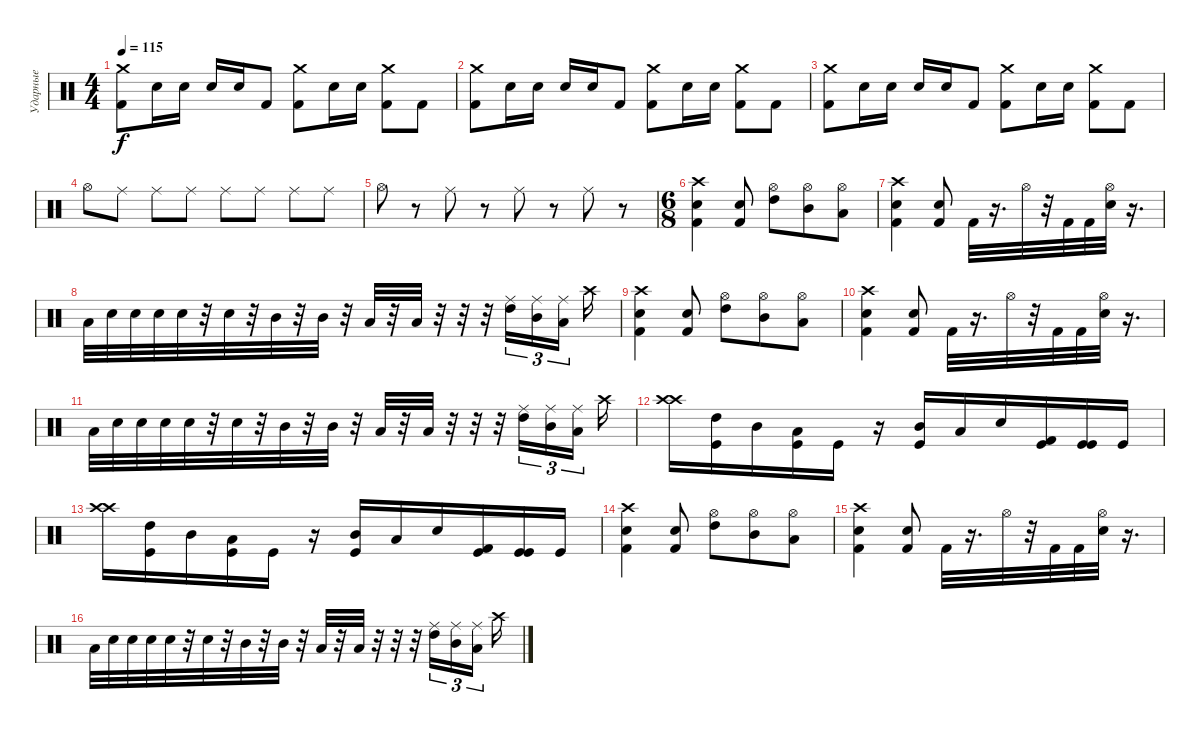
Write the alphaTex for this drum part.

\track ("Ударные" "Ударные") {instrument percussion}
\staff {score}
\articulation defaults
\ts (4 4)
\tempo 115
\clef neutral
\ks c
("Kick (hit) 2" "Crash medium (hit)").8{dy f} "Electric Snare (hit)".16 "Electric Snare (hit)".16 "Electric Snare (hit)".16 "Electric Snare (hit)".16 "Kick (hit) 2".8 ("Kick (hit) 2" "Crash medium (hit)").8 "Electric Snare (hit)".16 "Electric Snare (hit)".16 ("Kick (hit) 2" "Crash medium (hit)").8 "Kick (hit) 2".8 |
("Kick (hit) 2" "Crash medium (hit)").8 "Electric Snare (hit)".16 "Electric Snare (hit)".16 "Electric Snare (hit)".16 "Electric Snare (hit)".16 "Kick (hit) 2".8 ("Kick (hit) 2" "Crash medium (hit)").8 "Electric Snare (hit)".16 "Electric Snare (hit)".16 ("Kick (hit) 2" "Crash medium (hit)").8 "Kick (hit) 2".8 |
("Kick (hit) 2" "Crash medium (hit)").8 "Electric Snare (hit)".16 "Electric Snare (hit)".16 "Electric Snare (hit)".16 "Electric Snare (hit)".16 "Kick (hit) 2".8 ("Kick (hit) 2" "Crash medium (hit)").8 "Electric Snare (hit)".16 "Electric Snare (hit)".16 ("Kick (hit) 2" "Crash medium (hit)").8 "Kick (hit) 2".8 |
"Hi-Hat (open)".8 "Ride (middle)".8 "Ride (middle)".8 "Ride (middle)".8 "Ride (middle)".8 "Ride (middle)".8 "Ride (middle)".8 "Ride (middle)".8 |
"Hi-Hat (open)".8 r.8 "Ride (middle)".8 r.8 "Ride (middle)".8 r.8 "Ride (middle)".8 r.8 |
\ts (6 8)
("Crash high (hit)" "Kick (hit) 2" "Electric Snare (hit)").4 ("Kick (hit) 2" "Electric Snare (hit)").8 ("High Tom (hit)" "Hi-Hat (open)").8 ("Mid Tom (hit)" "Hi-Hat (open)").8 ("Low Tom (hit)" "Hi-Hat (open)").8 |
("Crash high (hit)" "Kick (hit) 2" "Electric Snare (hit)").4 ("Kick (hit) 2" "Electric Snare (hit)").8 "Kick (hit) 2".32 r.16{d} "Hi-Hat (open)".32 r.32 "Kick (hit) 2".32 "Kick (hit) 2".32 ("Snare (hit) 2" "Hi-Hat (open)").32 r.16{d} |
"Low Tom (hit)".32 "Snare (hit) 2".32 "Snare (hit) 2".32 "Snare (hit) 2".32 "Snare (hit) 2".32 r.32 "Snare (hit) 2".32 r.32 "Mid Tom (hit)".32 r.32 "Mid Tom (hit)".32 r.32 "Low Tom (hit)".32 r.32 "Low Tom (hit)".32 r.32 r.32 r.32 ("High Tom (hit)" "Ride (middle)").16{tu (3 2)} ("Mid Tom (hit)" "Ride (middle)").16{tu (3 2)} ("Low Tom (hit)" "Ride (middle)").16{tu (3 2)} "Crash high (hit)".16 |
("Crash high (hit)" "Kick (hit) 2" "Electric Snare (hit)").4 ("Kick (hit) 2" "Electric Snare (hit)").8 ("High Tom (hit)" "Hi-Hat (open)").8 ("Mid Tom (hit)" "Hi-Hat (open)").8 ("Low Tom (hit)" "Hi-Hat (open)").8 |
("Crash high (hit)" "Kick (hit) 2" "Electric Snare (hit)").4 ("Kick (hit) 2" "Electric Snare (hit)").8 "Kick (hit) 2".32 r.16{d} "Hi-Hat (open)".32 r.32 "Kick (hit) 2".32 "Kick (hit) 2".32 ("Snare (hit) 2" "Hi-Hat (open)").32 r.16{d} |
"Low Tom (hit)".32 "Snare (hit) 2".32 "Snare (hit) 2".32 "Snare (hit) 2".32 "Snare (hit) 2".32 r.32 "Snare (hit) 2".32 r.32 "Mid Tom (hit)".32 r.32 "Mid Tom (hit)".32 r.32 "Low Tom (hit)".32 r.32 "Low Tom (hit)".32 r.32 r.32 r.32 ("High Tom (hit)" "Ride (middle)").16{tu (3 2)} ("Mid Tom (hit)" "Ride (middle)").16{tu (3 2)} ("Low Tom (hit)" "Ride (middle)").16{tu (3 2)} "Crash high (hit)".16 |
("Crash high (hit)" "Crash high (hit)").16 ("High Tom (hit)" "Kick (hit)").16 "Mid Tom (hit)".16 ("Low Tom (hit)" "Kick (hit)").16 "Kick (hit)".16 r.16 ("Mid Tom (hit)" "Kick (hit)").16 "Low Tom (hit)".16 "Snare (hit) 2".16 ("Kick (hit) 2" "Kick (hit)").16 ("Kick (hit)" "Kick (hit)").16 "Kick (hit)".16 |
("Crash high (hit)" "Crash high (hit)").16 ("High Tom (hit)" "Kick (hit)").16 "Mid Tom (hit)".16 ("Low Tom (hit)" "Kick (hit)").16 "Kick (hit)".16 r.16 ("Mid Tom (hit)" "Kick (hit)").16 "Low Tom (hit)".16 "Snare (hit) 2".16 ("Kick (hit) 2" "Kick (hit)").16 ("Kick (hit)" "Kick (hit)").16 "Kick (hit)".16 |
("Crash high (hit)" "Kick (hit) 2" "Electric Snare (hit)").4 ("Kick (hit) 2" "Electric Snare (hit)").8 ("High Tom (hit)" "Hi-Hat (open)").8 ("Mid Tom (hit)" "Hi-Hat (open)").8 ("Low Tom (hit)" "Hi-Hat (open)").8 |
("Crash high (hit)" "Kick (hit) 2" "Electric Snare (hit)").4 ("Kick (hit) 2" "Electric Snare (hit)").8 "Kick (hit) 2".32 r.16{d} "Hi-Hat (open)".32 r.32 "Kick (hit) 2".32 "Kick (hit) 2".32 ("Snare (hit) 2" "Hi-Hat (open)").32 r.16{d} |
"Low Tom (hit)".32 "Snare (hit) 2".32 "Snare (hit) 2".32 "Snare (hit) 2".32 "Snare (hit) 2".32 r.32 "Snare (hit) 2".32 r.32 "Mid Tom (hit)".32 r.32 "Mid Tom (hit)".32 r.32 "Low Tom (hit)".32 r.32 "Low Tom (hit)".32 r.32 r.32 r.32 ("High Tom (hit)" "Ride (middle)").16{tu (3 2)} ("Mid Tom (hit)" "Ride (middle)").16{tu (3 2)} ("Low Tom (hit)" "Ride (middle)").16{tu (3 2)} "Crash high (hit)".16
